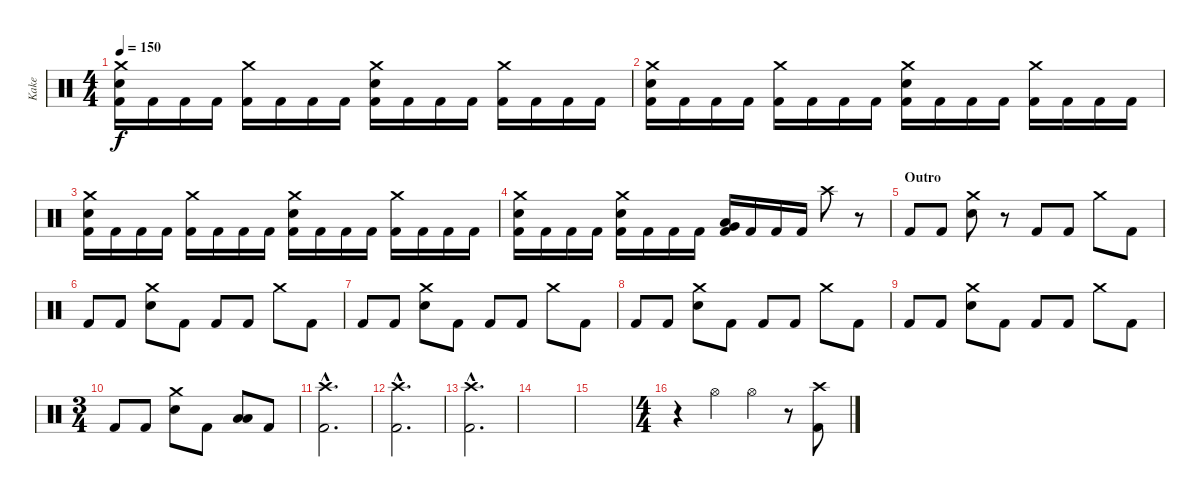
\track ("Kake" "Kake") {instrument percussion}
\staff {score}
\articulation defaults
\ts (4 4)
\tempo 150
\clef neutral
\ks c
("Crash medium (hit)" "Electric Snare (hit)" "Kick (hit) 2").16{dy f} "Kick (hit) 2".16 "Kick (hit) 2".16 "Kick (hit) 2".16 ("Crash medium (hit)" "Kick (hit) 2").16 "Kick (hit) 2".16 "Kick (hit) 2".16 "Kick (hit) 2".16 ("Crash medium (hit)" "Electric Snare (hit)" "Kick (hit) 2").16 "Kick (hit) 2".16 "Kick (hit) 2".16 "Kick (hit) 2".16 ("Crash medium (hit)" "Kick (hit) 2").16 "Kick (hit) 2".16 "Kick (hit) 2".16 "Kick (hit) 2".16 |
("Crash medium (hit)" "Electric Snare (hit)" "Kick (hit) 2").16 "Kick (hit) 2".16 "Kick (hit) 2".16 "Kick (hit) 2".16 ("Crash medium (hit)" "Kick (hit) 2").16 "Kick (hit) 2".16 "Kick (hit) 2".16 "Kick (hit) 2".16 ("Crash medium (hit)" "Electric Snare (hit)" "Kick (hit) 2").16 "Kick (hit) 2".16 "Kick (hit) 2".16 "Kick (hit) 2".16 ("Crash medium (hit)" "Kick (hit) 2").16 "Kick (hit) 2".16 "Kick (hit) 2".16 "Kick (hit) 2".16 |
("Crash medium (hit)" "Electric Snare (hit)" "Kick (hit) 2").16 "Kick (hit) 2".16 "Kick (hit) 2".16 "Kick (hit) 2".16 ("Crash medium (hit)" "Kick (hit) 2").16 "Kick (hit) 2".16 "Kick (hit) 2".16 "Kick (hit) 2".16 ("Crash medium (hit)" "Electric Snare (hit)" "Kick (hit) 2").16 "Kick (hit) 2".16 "Kick (hit) 2".16 "Kick (hit) 2".16 ("Crash medium (hit)" "Kick (hit) 2").16 "Kick (hit) 2".16 "Kick (hit) 2".16 "Kick (hit) 2".16 |
("Crash medium (hit)" "Electric Snare (hit)" "Kick (hit) 2").16 "Kick (hit) 2".16 "Kick (hit) 2".16 "Kick (hit) 2".16 ("Crash medium (hit)" "Electric Snare (hit)" "Kick (hit) 2").16 "Kick (hit) 2".16 "Kick (hit) 2".16 "Kick (hit) 2".16 ("Low Tom (hit)" "Very Low Tom (hit)" "Kick (hit) 2").16 "Kick (hit) 2".16 "Kick (hit) 2".16 "Kick (hit) 2".16 "Crash high (hit)".8 r.8 |
\section ("" "Outro")
"Kick (hit) 2".8 "Kick (hit) 2".8 ("Crash medium (hit)" "Electric Snare (hit)").8 r.8 "Kick (hit) 2".8 "Kick (hit) 2".8 "Crash medium (hit)".8 "Kick (hit) 2".8 |
"Kick (hit) 2".8 "Kick (hit) 2".8 ("Crash medium (hit)" "Electric Snare (hit)").8 "Kick (hit) 2".8 "Kick (hit) 2".8 "Kick (hit) 2".8 "Crash medium (hit)".8 "Kick (hit) 2".8 |
"Kick (hit) 2".8 "Kick (hit) 2".8 ("Crash medium (hit)" "Electric Snare (hit)").8 "Kick (hit) 2".8 "Kick (hit) 2".8 "Kick (hit) 2".8 "Crash medium (hit)".8 "Kick (hit) 2".8 |
"Kick (hit) 2".8 "Kick (hit) 2".8 ("Crash medium (hit)" "Electric Snare (hit)").8 "Kick (hit) 2".8 "Kick (hit) 2".8 "Kick (hit) 2".8 "Crash medium (hit)".8 "Kick (hit) 2".8 |
"Kick (hit) 2".8 "Kick (hit) 2".8 ("Crash medium (hit)" "Electric Snare (hit)").8 "Kick (hit) 2".8 "Kick (hit) 2".8 "Kick (hit) 2".8 "Crash medium (hit)".8 "Kick (hit) 2".8 |
\ts (3 4)
"Kick (hit) 2".8 "Kick (hit) 2".8 ("Crash medium (hit)" "Electric Snare (hit)").8 "Kick (hit) 2".8 ("Low Floor Tom (hit)" "Low Tom (hit)").8 "Kick (hit) 2".8 |
("Crash high (hit)"{hac} "Kick (hit) 2"{hac}).2{d} |
("Crash high (hit)"{hac} "Kick (hit) 2"{hac}).2{d} |
("Crash high (hit)"{hac} "Kick (hit) 2"{hac}).2{d} |
|
|
\ts (4 4)
r.4 "Hi-Hat (open)".4 "Hi-Hat (open)".4 r.8 ("Crash high (hit)" "Kick (hit) 2").8
